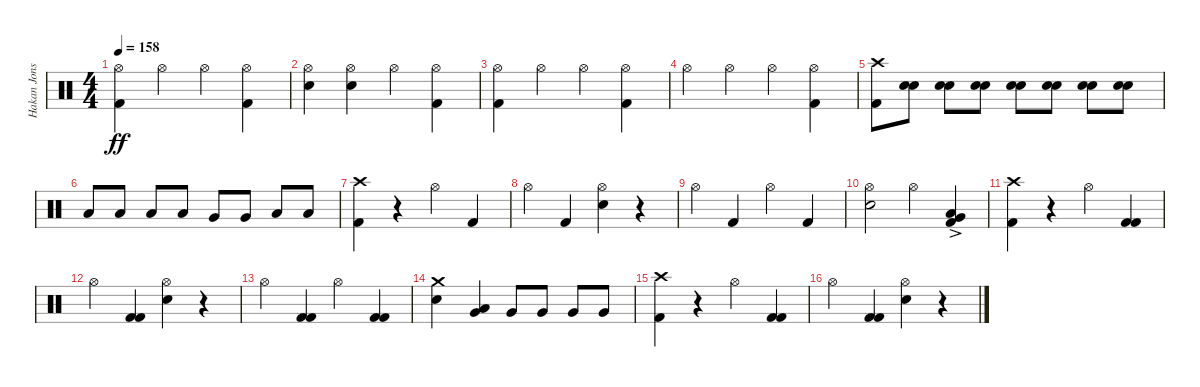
\track ("Hakan Jonsson" "Hakan Jons") {instrument percussion}
\staff {score}
\articulation defaults
\ts (4 4)
\tempo 158
\clef neutral
\ks c
("Hi-Hat (open)" "Kick (hit) 2").4{dy ff} "Hi-Hat (open)".4 "Hi-Hat (open)".4 ("Hi-Hat (open)" "Kick (hit) 2").4 |
("Hi-Hat (open)" "Electric Snare (hit)").4 ("Hi-Hat (open)" "Electric Snare (hit)").4 "Hi-Hat (open)".4 ("Hi-Hat (open)" "Kick (hit) 2").4 |
("Hi-Hat (open)" "Kick (hit) 2").4 "Hi-Hat (open)".4 "Hi-Hat (open)".4 ("Hi-Hat (open)" "Kick (hit) 2").4 |
"Hi-Hat (open)".4 "Hi-Hat (open)".4 "Hi-Hat (open)".4 ("Hi-Hat (open)" "Kick (hit) 2").4 |
("Crash high (hit)" "Kick (hit) 2").8 ("Electric Snare (hit)" "Electric Snare (hit)").8 ("Electric Snare (hit)" "Electric Snare (hit)").8 ("Electric Snare (hit)" "Electric Snare (hit)").8 ("Electric Snare (hit)" "Electric Snare (hit)").8 ("Electric Snare (hit)" "Electric Snare (hit)").8 ("Electric Snare (hit)" "Electric Snare (hit)").8 ("Electric Snare (hit)" "Electric Snare (hit)").8 |
"Low Tom (hit)".8 "Low Tom (hit)".8 "Low Tom (hit)".8 "Low Tom (hit)".8 "Very Low Tom (hit)".8 "Very Low Tom (hit)".8 "Low Floor Tom (hit)".8 "Low Floor Tom (hit)".8 |
("Crash high (hit)" "Kick (hit) 2").4 r.4 "Hi-Hat (open)".4 "Kick (hit) 2".4 |
"Hi-Hat (open)".4 "Kick (hit) 2".4 ("Hi-Hat (open)" "Electric Snare (hit)").4 r.4 |
"Hi-Hat (open)".4 "Kick (hit) 2".4 "Hi-Hat (open)".4 "Kick (hit) 2".4 |
("Hi-Hat (open)" "Electric Snare (hit)").2 "Hi-Hat (open)".4 ("Very Low Tom (hit)"{ac} "Low Floor Tom (hit)" "Kick (hit) 2").4 |
("Crash high (hit)" "Kick (hit) 2").4 r.4 "Hi-Hat (open)".4 ("Kick (hit) 2" "Kick (hit) 2").4 |
"Hi-Hat (open)".4 ("Kick (hit) 2" "Kick (hit) 2").4 ("Hi-Hat (open)" "Electric Snare (hit)").4 r.4 |
"Hi-Hat (open)".4 ("Kick (hit) 2" "Kick (hit) 2").4 "Hi-Hat (open)".4 ("Kick (hit) 2" "Kick (hit) 2").4 |
("Crash medium (hit)" "Electric Snare (hit)").4 ("Very Low Tom (hit)" "Low Floor Tom (hit)").4 "Very Low Tom (hit)".8 "Very Low Tom (hit)".8 "Very Low Tom (hit)".8 "Very Low Tom (hit)".8 |
("Crash high (hit)" "Kick (hit) 2").4 r.4 "Hi-Hat (open)".4 ("Kick (hit) 2" "Kick (hit) 2").4 |
"Hi-Hat (open)".4 ("Kick (hit) 2" "Kick (hit) 2").4 ("Hi-Hat (open)" "Electric Snare (hit)").4 r.4
